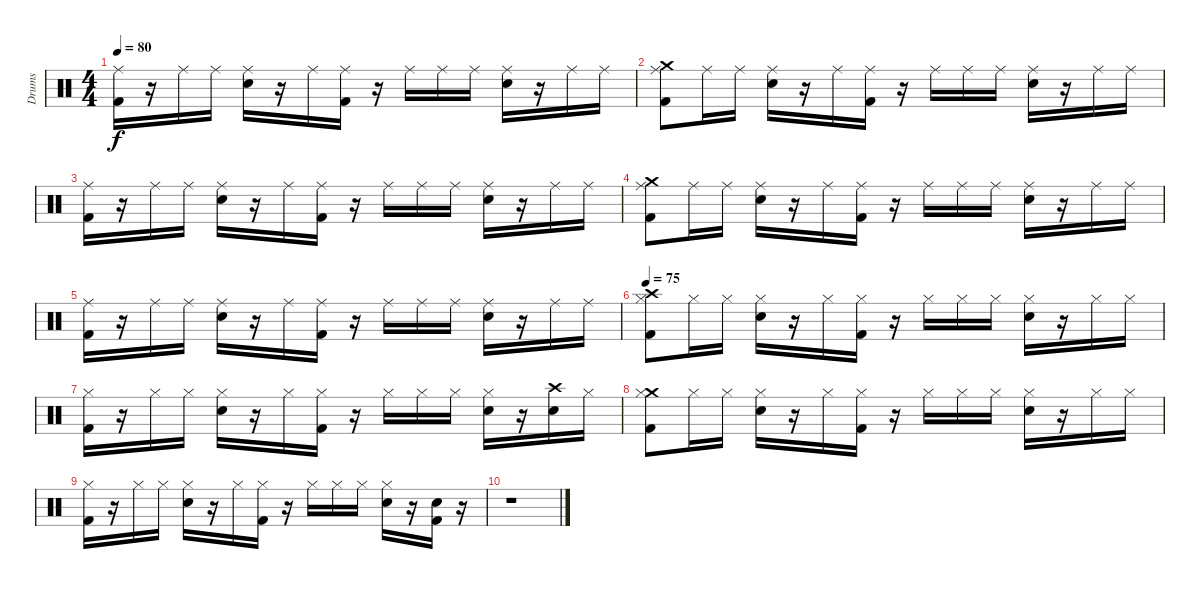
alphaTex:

\track ("Drums" "Drums") {instrument percussion}
\staff {score}
\articulation defaults
\ts (4 4)
\tempo 80
\clef neutral
\ks c
("Kick (hit) 2" "Ride (middle)").16{dy f} r.16 "Ride (middle)".16 "Ride (middle)".16 ("Snare (hit) 2" "Ride (middle)").16 r.16 "Ride (middle)".16 ("Ride (middle)" "Kick (hit) 2").16 r.16 "Ride (middle)".16 "Ride (middle)".16 "Ride (middle)".16 ("Ride (middle)" "Snare (hit) 2").16 r.16 "Ride (middle)".16 "Ride (middle)".16 |
("Crash medium (hit)" "Ride (middle)" "Kick (hit) 2").8 "Ride (middle)".16 "Ride (middle)".16 ("Snare (hit) 2" "Ride (middle)").16 r.16 "Ride (middle)".16 ("Ride (middle)" "Kick (hit) 2").16 r.16 "Ride (middle)".16 "Ride (middle)".16 "Ride (middle)".16 ("Ride (middle)" "Snare (hit) 2").16 r.16 "Ride (middle)".16 "Ride (middle)".16 |
("Kick (hit) 2" "Ride (middle)").16 r.16 "Ride (middle)".16 "Ride (middle)".16 ("Snare (hit) 2" "Ride (middle)").16 r.16 "Ride (middle)".16 ("Ride (middle)" "Kick (hit) 2").16 r.16 "Ride (middle)".16 "Ride (middle)".16 "Ride (middle)".16 ("Ride (middle)" "Snare (hit) 2").16 r.16 "Ride (middle)".16 "Ride (middle)".16 |
("Crash medium (hit)" "Ride (middle)" "Kick (hit) 2").8 "Ride (middle)".16 "Ride (middle)".16 ("Snare (hit) 2" "Ride (middle)").16 r.16 "Ride (middle)".16 ("Ride (middle)" "Kick (hit) 2").16 r.16 "Ride (middle)".16 "Ride (middle)".16 "Ride (middle)".16 ("Ride (middle)" "Snare (hit) 2").16 r.16 "Ride (middle)".16 "Ride (middle)".16 |
("Kick (hit) 2" "Ride (middle)").16 r.16 "Ride (middle)".16 "Ride (middle)".16 ("Snare (hit) 2" "Ride (middle)").16 r.16 "Ride (middle)".16 ("Ride (middle)" "Kick (hit) 2").16 r.16 "Ride (middle)".16 "Ride (middle)".16 "Ride (middle)".16 ("Ride (middle)" "Snare (hit) 2").16 r.16 "Ride (middle)".16 "Ride (middle)".16 |
\tempo 75
("Crash high (hit)" "Kick (hit) 2" "Hi-Hat (closed)").8 "Hi-Hat (closed)".16 "Hi-Hat (closed)".16 ("Snare (hit) 2" "Hi-Hat (closed)").16 r.16 "Hi-Hat (closed)".16 ("Hi-Hat (closed)" "Kick (hit) 2").16 r.16 "Hi-Hat (closed)".16 "Hi-Hat (closed)".16 "Hi-Hat (closed)".16 ("Snare (hit) 2" "Hi-Hat (closed)").16 r.16 "Hi-Hat (closed)".16 "Hi-Hat (closed)".16 |
("Hi-Hat (closed)" "Kick (hit) 2").16 r.16 "Hi-Hat (closed)".16 "Hi-Hat (closed)".16 ("Hi-Hat (closed)" "Snare (hit) 2").16 r.16 "Hi-Hat (closed)".16 ("Kick (hit) 2" "Hi-Hat (closed)").16 r.16 "Hi-Hat (closed)".16 "Hi-Hat (closed)".16 "Hi-Hat (closed)".16 ("Hi-Hat (closed)" "Snare (hit) 2").16 r.16 ("Crash high (hit)" "Snare (hit) 2").16 "Hi-Hat (closed)".16 |
("Crash medium (hit)" "Kick (hit) 2" "Hi-Hat (closed)").8 "Hi-Hat (closed)".16 "Hi-Hat (closed)".16 ("Snare (hit) 2" "Hi-Hat (closed)").16 r.16 "Hi-Hat (closed)".16 ("Hi-Hat (closed)" "Kick (hit) 2").16 r.16 "Hi-Hat (closed)".16 "Hi-Hat (closed)".16 "Hi-Hat (closed)".16 ("Hi-Hat (closed)" "Snare (hit) 2").16 r.16 "Hi-Hat (closed)".16 "Hi-Hat (closed)".16 |
("Hi-Hat (closed)" "Kick (hit) 2").16 r.16 "Hi-Hat (closed)".16 "Hi-Hat (closed)".16 ("Hi-Hat (closed)" "Snare (hit) 2").16 r.16 "Hi-Hat (closed)".16 ("Kick (hit) 2" "Hi-Hat (closed)").16 r.16 "Hi-Hat (closed)".16 "Hi-Hat (closed)".16 "Hi-Hat (closed)".16 ("Hi-Hat (closed)" "Snare (hit) 2").16 r.16 ("Snare (hit) 2" "Kick (hit) 2").16 r.16 |
r.1
